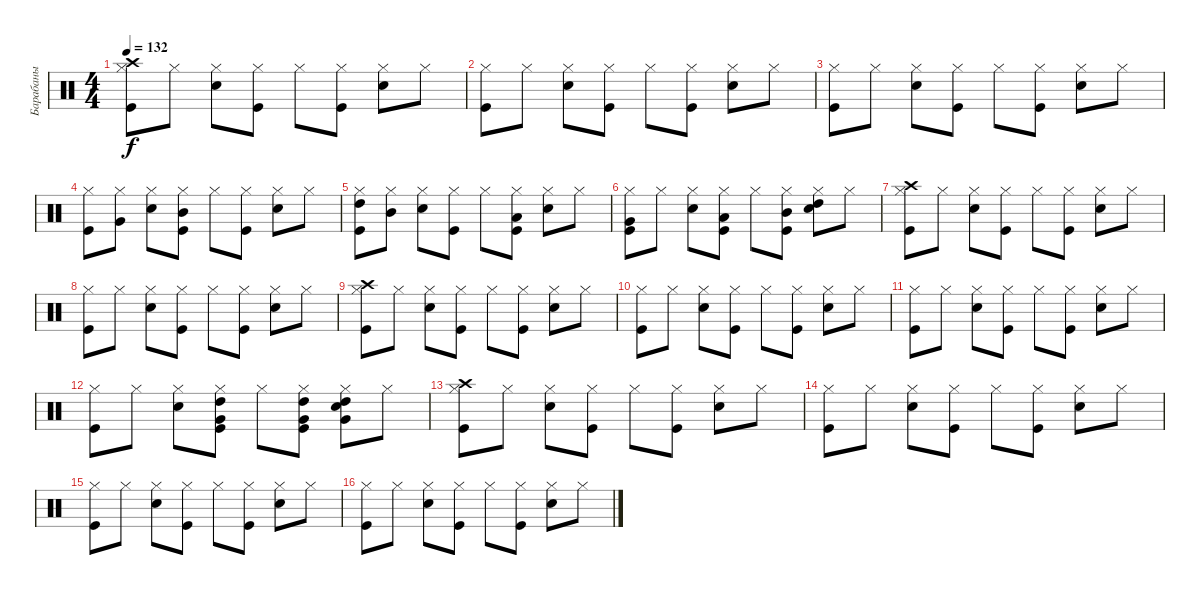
\track ("Барабаны" "Барабаны") {instrument percussion}
\staff {score}
\articulation defaults
\ts (4 4)
\tempo 132
\clef neutral
\ks c
("Kick (hit)" "Hi-Hat (closed)" "Crash high (hit)").8{dy f volume 11} "Hi-Hat (closed)".8 ("Snare (hit) 2" "Hi-Hat (closed)").8 ("Kick (hit)" "Hi-Hat (closed)").8 "Hi-Hat (closed)".8 ("Kick (hit)" "Hi-Hat (closed)").8 ("Snare (hit) 2" "Hi-Hat (closed)").8 "Hi-Hat (closed)".8 |
("Kick (hit)" "Hi-Hat (closed)").8 "Hi-Hat (closed)".8 ("Snare (hit) 2" "Hi-Hat (closed)").8 ("Kick (hit)" "Hi-Hat (closed)").8 "Hi-Hat (closed)".8 ("Kick (hit)" "Hi-Hat (closed)").8 ("Snare (hit) 2" "Hi-Hat (closed)").8 "Hi-Hat (closed)".8 |
("Kick (hit)" "Hi-Hat (closed)").8 "Hi-Hat (closed)".8 ("Snare (hit) 2" "Hi-Hat (closed)").8 ("Kick (hit)" "Hi-Hat (closed)").8 "Hi-Hat (closed)".8 ("Kick (hit)" "Hi-Hat (closed)").8 ("Snare (hit) 2" "Hi-Hat (closed)").8 "Hi-Hat (closed)".8 |
("Kick (hit)" "Hi-Hat (closed)").8 ("Hi-Hat (closed)" "Very Low Tom (hit)").8 ("Snare (hit) 2" "Hi-Hat (closed)").8 ("Kick (hit)" "Hi-Hat (closed)" "Mid Tom (hit)").8 "Hi-Hat (closed)".8 ("Kick (hit)" "Hi-Hat (closed)").8 ("Snare (hit) 2" "Hi-Hat (closed)").8 "Hi-Hat (closed)".8 |
("Kick (hit)" "Hi-Hat (closed)" "High Tom (hit)").8{volume 10} ("Hi-Hat (closed)" "Mid Tom (hit)").8 ("Snare (hit) 2" "Hi-Hat (closed)").8 ("Kick (hit)" "Hi-Hat (closed)").8 "Hi-Hat (closed)".8 ("Kick (hit)" "Hi-Hat (closed)" "Low Tom (hit)").8 ("Snare (hit) 2" "Hi-Hat (closed)").8 "Hi-Hat (closed)".8 |
("Kick (hit)" "Hi-Hat (closed)" "Very Low Tom (hit)").8 "Hi-Hat (closed)".8 ("Snare (hit) 2" "Hi-Hat (closed)").8 ("Kick (hit)" "Hi-Hat (closed)" "Low Tom (hit)").8 "Hi-Hat (closed)".8 ("Kick (hit)" "Hi-Hat (closed)" "Mid Tom (hit)").8 ("Snare (hit) 2" "Hi-Hat (closed)" "High Tom (hit)").8 "Hi-Hat (closed)".8 |
("Kick (hit)" "Hi-Hat (closed)" "Crash high (hit)").8 "Hi-Hat (closed)".8 ("Snare (hit) 2" "Hi-Hat (closed)").8 ("Kick (hit)" "Hi-Hat (closed)").8 "Hi-Hat (closed)".8 ("Kick (hit)" "Hi-Hat (closed)").8 ("Snare (hit) 2" "Hi-Hat (closed)").8 "Hi-Hat (closed)".8 |
("Kick (hit)" "Hi-Hat (closed)").8 "Hi-Hat (closed)".8 ("Snare (hit) 2" "Hi-Hat (closed)").8 ("Kick (hit)" "Hi-Hat (closed)").8 "Hi-Hat (closed)".8 ("Kick (hit)" "Hi-Hat (closed)").8 ("Snare (hit) 2" "Hi-Hat (closed)").8 "Hi-Hat (closed)".8 |
("Kick (hit)" "Hi-Hat (closed)" "Crash high (hit)").8{volume 8} "Hi-Hat (closed)".8 ("Snare (hit) 2" "Hi-Hat (closed)").8 ("Kick (hit)" "Hi-Hat (closed)").8 "Hi-Hat (closed)".8 ("Kick (hit)" "Hi-Hat (closed)").8 ("Snare (hit) 2" "Hi-Hat (closed)").8 "Hi-Hat (closed)".8 |
("Kick (hit)" "Hi-Hat (closed)").8 "Hi-Hat (closed)".8 ("Snare (hit) 2" "Hi-Hat (closed)").8 ("Kick (hit)" "Hi-Hat (closed)").8 "Hi-Hat (closed)".8 ("Kick (hit)" "Hi-Hat (closed)").8 ("Snare (hit) 2" "Hi-Hat (closed)").8 "Hi-Hat (closed)".8 |
("Kick (hit)" "Hi-Hat (closed)").8 "Hi-Hat (closed)".8 ("Snare (hit) 2" "Hi-Hat (closed)").8 ("Kick (hit)" "Hi-Hat (closed)").8 "Hi-Hat (closed)".8 ("Kick (hit)" "Hi-Hat (closed)").8 ("Snare (hit) 2" "Hi-Hat (closed)").8 "Hi-Hat (closed)".8 |
("Kick (hit)" "Hi-Hat (closed)").8 "Hi-Hat (closed)".8 ("Snare (hit) 2" "Hi-Hat (closed)").8 ("Kick (hit)" "Hi-Hat (closed)" "Very Low Tom (hit)" "High Tom (hit)").8 "Hi-Hat (closed)".8 ("Kick (hit)" "Hi-Hat (closed)" "Very Low Tom (hit)" "High Tom (hit)").8 ("Snare (hit) 2" "Hi-Hat (closed)" "Very Low Tom (hit)" "High Tom (hit)").8 "Hi-Hat (closed)".8 |
("Kick (hit)" "Hi-Hat (closed)" "Crash high (hit)").8{volume 4} "Hi-Hat (closed)".8 ("Snare (hit) 2" "Hi-Hat (closed)").8 ("Kick (hit)" "Hi-Hat (closed)").8 "Hi-Hat (closed)".8 ("Kick (hit)" "Hi-Hat (closed)").8 ("Snare (hit) 2" "Hi-Hat (closed)").8 "Hi-Hat (closed)".8 |
("Kick (hit)" "Hi-Hat (closed)").8 "Hi-Hat (closed)".8 ("Snare (hit) 2" "Hi-Hat (closed)").8 ("Kick (hit)" "Hi-Hat (closed)").8 "Hi-Hat (closed)".8 ("Kick (hit)" "Hi-Hat (closed)").8 ("Snare (hit) 2" "Hi-Hat (closed)").8 "Hi-Hat (closed)".8 |
("Kick (hit)" "Hi-Hat (closed)").8 "Hi-Hat (closed)".8 ("Snare (hit) 2" "Hi-Hat (closed)").8 ("Kick (hit)" "Hi-Hat (closed)").8 "Hi-Hat (closed)".8 ("Kick (hit)" "Hi-Hat (closed)").8 ("Snare (hit) 2" "Hi-Hat (closed)").8 "Hi-Hat (closed)".8 |
("Kick (hit)" "Hi-Hat (closed)").8 "Hi-Hat (closed)".8 ("Snare (hit) 2" "Hi-Hat (closed)").8 ("Kick (hit)" "Hi-Hat (closed)").8 "Hi-Hat (closed)".8 ("Kick (hit)" "Hi-Hat (closed)").8 ("Snare (hit) 2" "Hi-Hat (closed)").8 "Hi-Hat (closed)".8
